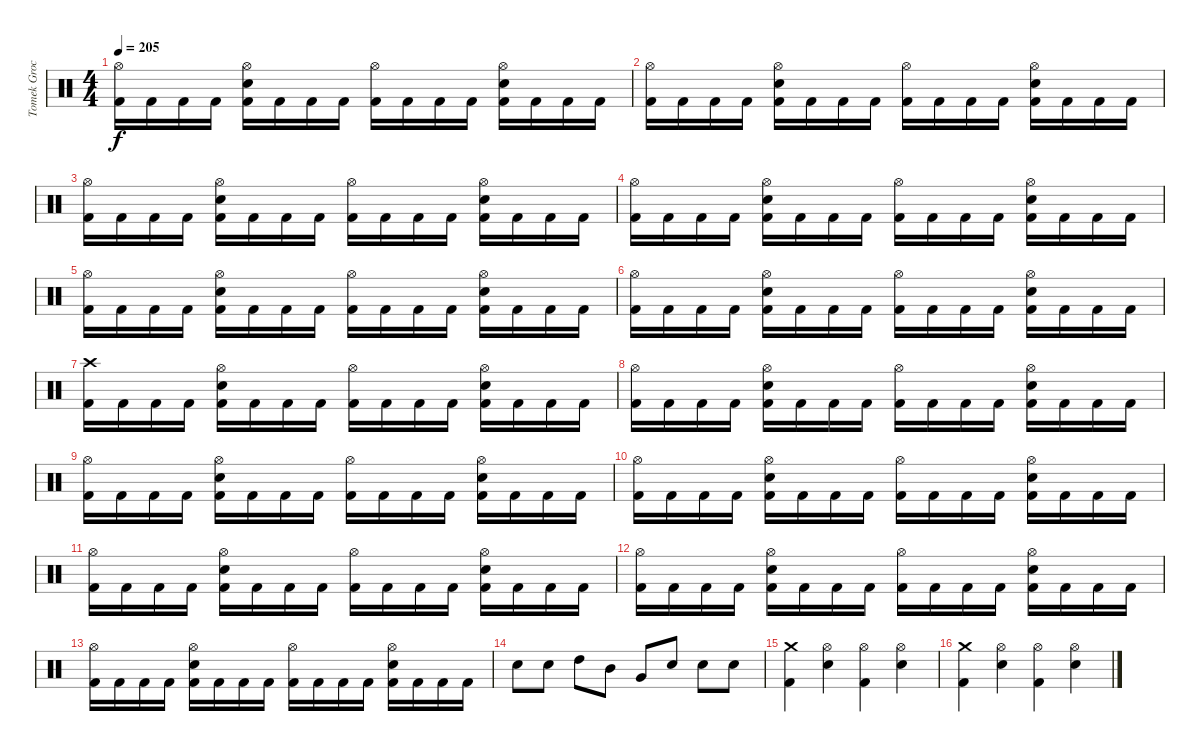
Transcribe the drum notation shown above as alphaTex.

\track ("Tomek Grochowski" "Tomek Groc") {instrument percussion}
\staff {score}
\articulation defaults
\ts (4 4)
\tempo 205
\clef neutral
\ks c
("Hi-Hat (open)" "Kick (hit) 2").16{dy f} "Kick (hit) 2".16 "Kick (hit) 2".16 "Kick (hit) 2".16 ("Hi-Hat (open)" "Electric Snare (hit)" "Kick (hit) 2").16 "Kick (hit) 2".16 "Kick (hit) 2".16 "Kick (hit) 2".16 ("Hi-Hat (open)" "Kick (hit) 2").16 "Kick (hit) 2".16 "Kick (hit) 2".16 "Kick (hit) 2".16 ("Hi-Hat (open)" "Electric Snare (hit)" "Kick (hit) 2").16 "Kick (hit) 2".16 "Kick (hit) 2".16 "Kick (hit) 2".16 |
("Hi-Hat (open)" "Kick (hit) 2").16 "Kick (hit) 2".16 "Kick (hit) 2".16 "Kick (hit) 2".16 ("Hi-Hat (open)" "Electric Snare (hit)" "Kick (hit) 2").16 "Kick (hit) 2".16 "Kick (hit) 2".16 "Kick (hit) 2".16 ("Hi-Hat (open)" "Kick (hit) 2").16 "Kick (hit) 2".16 "Kick (hit) 2".16 "Kick (hit) 2".16 ("Hi-Hat (open)" "Electric Snare (hit)" "Kick (hit) 2").16 "Kick (hit) 2".16 "Kick (hit) 2".16 "Kick (hit) 2".16 |
("Hi-Hat (open)" "Kick (hit) 2").16 "Kick (hit) 2".16 "Kick (hit) 2".16 "Kick (hit) 2".16 ("Hi-Hat (open)" "Electric Snare (hit)" "Kick (hit) 2").16 "Kick (hit) 2".16 "Kick (hit) 2".16 "Kick (hit) 2".16 ("Hi-Hat (open)" "Kick (hit) 2").16 "Kick (hit) 2".16 "Kick (hit) 2".16 "Kick (hit) 2".16 ("Hi-Hat (open)" "Electric Snare (hit)" "Kick (hit) 2").16 "Kick (hit) 2".16 "Kick (hit) 2".16 "Kick (hit) 2".16 |
("Hi-Hat (open)" "Kick (hit) 2").16 "Kick (hit) 2".16 "Kick (hit) 2".16 "Kick (hit) 2".16 ("Hi-Hat (open)" "Electric Snare (hit)" "Kick (hit) 2").16 "Kick (hit) 2".16 "Kick (hit) 2".16 "Kick (hit) 2".16 ("Hi-Hat (open)" "Kick (hit) 2").16 "Kick (hit) 2".16 "Kick (hit) 2".16 "Kick (hit) 2".16 ("Hi-Hat (open)" "Electric Snare (hit)" "Kick (hit) 2").16 "Kick (hit) 2".16 "Kick (hit) 2".16 "Kick (hit) 2".16 |
("Hi-Hat (open)" "Kick (hit) 2").16 "Kick (hit) 2".16 "Kick (hit) 2".16 "Kick (hit) 2".16 ("Hi-Hat (open)" "Electric Snare (hit)" "Kick (hit) 2").16 "Kick (hit) 2".16 "Kick (hit) 2".16 "Kick (hit) 2".16 ("Hi-Hat (open)" "Kick (hit) 2").16 "Kick (hit) 2".16 "Kick (hit) 2".16 "Kick (hit) 2".16 ("Hi-Hat (open)" "Electric Snare (hit)" "Kick (hit) 2").16 "Kick (hit) 2".16 "Kick (hit) 2".16 "Kick (hit) 2".16 |
("Hi-Hat (open)" "Kick (hit) 2").16 "Kick (hit) 2".16 "Kick (hit) 2".16 "Kick (hit) 2".16 ("Hi-Hat (open)" "Electric Snare (hit)" "Kick (hit) 2").16 "Kick (hit) 2".16 "Kick (hit) 2".16 "Kick (hit) 2".16 ("Hi-Hat (open)" "Kick (hit) 2").16 "Kick (hit) 2".16 "Kick (hit) 2".16 "Kick (hit) 2".16 ("Hi-Hat (open)" "Electric Snare (hit)" "Kick (hit) 2").16 "Kick (hit) 2".16 "Kick (hit) 2".16 "Kick (hit) 2".16 |
("Crash high (hit)" "Kick (hit) 2").16 "Kick (hit) 2".16 "Kick (hit) 2".16 "Kick (hit) 2".16 ("Hi-Hat (open)" "Electric Snare (hit)" "Kick (hit) 2").16 "Kick (hit) 2".16 "Kick (hit) 2".16 "Kick (hit) 2".16 ("Hi-Hat (open)" "Kick (hit) 2").16 "Kick (hit) 2".16 "Kick (hit) 2".16 "Kick (hit) 2".16 ("Hi-Hat (open)" "Electric Snare (hit)" "Kick (hit) 2").16 "Kick (hit) 2".16 "Kick (hit) 2".16 "Kick (hit) 2".16 |
("Hi-Hat (open)" "Kick (hit) 2").16 "Kick (hit) 2".16 "Kick (hit) 2".16 "Kick (hit) 2".16 ("Hi-Hat (open)" "Electric Snare (hit)" "Kick (hit) 2").16 "Kick (hit) 2".16 "Kick (hit) 2".16 "Kick (hit) 2".16 ("Hi-Hat (open)" "Kick (hit) 2").16 "Kick (hit) 2".16 "Kick (hit) 2".16 "Kick (hit) 2".16 ("Hi-Hat (open)" "Electric Snare (hit)" "Kick (hit) 2").16 "Kick (hit) 2".16 "Kick (hit) 2".16 "Kick (hit) 2".16 |
("Hi-Hat (open)" "Kick (hit) 2").16 "Kick (hit) 2".16 "Kick (hit) 2".16 "Kick (hit) 2".16 ("Hi-Hat (open)" "Electric Snare (hit)" "Kick (hit) 2").16 "Kick (hit) 2".16 "Kick (hit) 2".16 "Kick (hit) 2".16 ("Hi-Hat (open)" "Kick (hit) 2").16 "Kick (hit) 2".16 "Kick (hit) 2".16 "Kick (hit) 2".16 ("Hi-Hat (open)" "Electric Snare (hit)" "Kick (hit) 2").16 "Kick (hit) 2".16 "Kick (hit) 2".16 "Kick (hit) 2".16 |
("Hi-Hat (open)" "Kick (hit) 2").16 "Kick (hit) 2".16 "Kick (hit) 2".16 "Kick (hit) 2".16 ("Hi-Hat (open)" "Electric Snare (hit)" "Kick (hit) 2").16 "Kick (hit) 2".16 "Kick (hit) 2".16 "Kick (hit) 2".16 ("Hi-Hat (open)" "Kick (hit) 2").16 "Kick (hit) 2".16 "Kick (hit) 2".16 "Kick (hit) 2".16 ("Hi-Hat (open)" "Electric Snare (hit)" "Kick (hit) 2").16 "Kick (hit) 2".16 "Kick (hit) 2".16 "Kick (hit) 2".16 |
("Hi-Hat (open)" "Kick (hit) 2").16 "Kick (hit) 2".16 "Kick (hit) 2".16 "Kick (hit) 2".16 ("Hi-Hat (open)" "Electric Snare (hit)" "Kick (hit) 2").16 "Kick (hit) 2".16 "Kick (hit) 2".16 "Kick (hit) 2".16 ("Hi-Hat (open)" "Kick (hit) 2").16 "Kick (hit) 2".16 "Kick (hit) 2".16 "Kick (hit) 2".16 ("Hi-Hat (open)" "Electric Snare (hit)" "Kick (hit) 2").16 "Kick (hit) 2".16 "Kick (hit) 2".16 "Kick (hit) 2".16 |
("Hi-Hat (open)" "Kick (hit) 2").16 "Kick (hit) 2".16 "Kick (hit) 2".16 "Kick (hit) 2".16 ("Hi-Hat (open)" "Electric Snare (hit)" "Kick (hit) 2").16 "Kick (hit) 2".16 "Kick (hit) 2".16 "Kick (hit) 2".16 ("Hi-Hat (open)" "Kick (hit) 2").16 "Kick (hit) 2".16 "Kick (hit) 2".16 "Kick (hit) 2".16 ("Hi-Hat (open)" "Electric Snare (hit)" "Kick (hit) 2").16 "Kick (hit) 2".16 "Kick (hit) 2".16 "Kick (hit) 2".16 |
("Hi-Hat (open)" "Kick (hit) 2").16 "Kick (hit) 2".16 "Kick (hit) 2".16 "Kick (hit) 2".16 ("Hi-Hat (open)" "Electric Snare (hit)" "Kick (hit) 2").16 "Kick (hit) 2".16 "Kick (hit) 2".16 "Kick (hit) 2".16 ("Hi-Hat (open)" "Kick (hit) 2").16 "Kick (hit) 2".16 "Kick (hit) 2".16 "Kick (hit) 2".16 ("Hi-Hat (open)" "Electric Snare (hit)" "Kick (hit) 2").16 "Kick (hit) 2".16 "Kick (hit) 2".16 "Kick (hit) 2".16 |
"Electric Snare (hit)".8 "Electric Snare (hit)".8 "High Tom (hit)".8 "Mid Tom (hit)".8 "Very Low Tom (hit)".8 "Electric Snare (hit)".8 "Electric Snare (hit)".8 "Electric Snare (hit)".8 |
("Crash medium (hit)" "Kick (hit) 2").4 ("Hi-Hat (open)" "Electric Snare (hit)").4 ("Hi-Hat (open)" "Kick (hit) 2").4 ("Hi-Hat (open)" "Electric Snare (hit)").4 |
("Crash medium (hit)" "Kick (hit) 2").4 ("Hi-Hat (open)" "Electric Snare (hit)").4 ("Hi-Hat (open)" "Kick (hit) 2").4 ("Hi-Hat (open)" "Electric Snare (hit)").4
